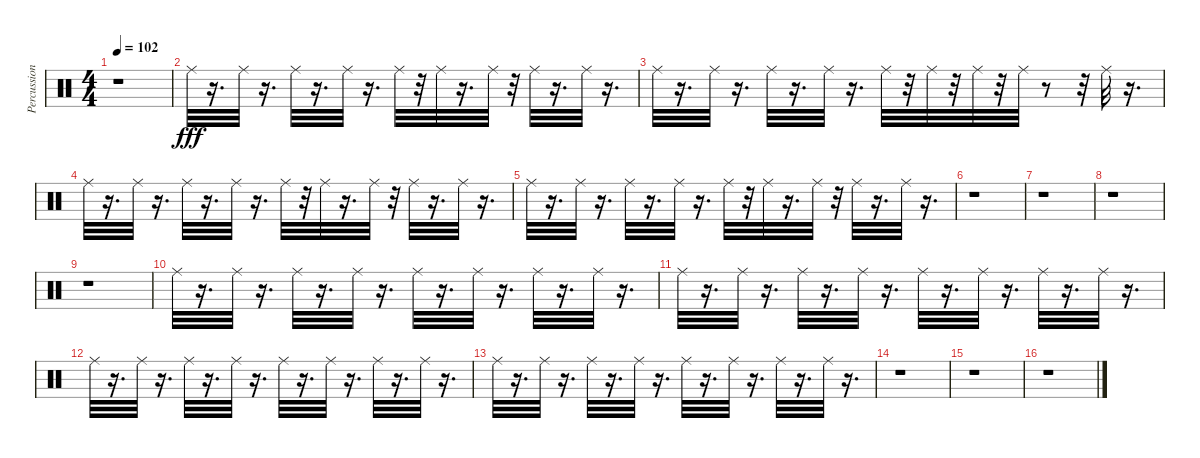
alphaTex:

\track ("Percussion" "Percussion") {instrument percussion}
\staff {score}
\articulation defaults
\ts (4 4)
\tempo 102
\clef neutral
\ks c
r.1{dy fff} |
"Ride (middle)".32 r.16{d} "Ride (middle)".32 r.16{d} "Ride (middle)".32 r.16{d} "Ride (middle)".32 r.16{d} "Ride (middle)".32 r.32 "Ride (middle)".32 r.16{d} "Ride (middle)".32 r.32 "Ride (middle)".32 r.16{d} "Ride (middle)".32 r.16{d} |
"Ride (middle)".32 r.16{d} "Ride (middle)".32 r.16{d} "Ride (middle)".32 r.16{d} "Ride (middle)".32 r.16{d} "Ride (middle)".32 r.32 "Ride (middle)".32 r.32 "Ride (middle)".32 r.32 "Ride (middle)".32 r.8 r.32 "Ride (middle)".32 r.16{d} |
"Ride (middle)".32 r.16{d} "Ride (middle)".32 r.16{d} "Ride (middle)".32 r.16{d} "Ride (middle)".32 r.16{d} "Ride (middle)".32 r.32 "Ride (middle)".32 r.16{d} "Ride (middle)".32 r.32 "Ride (middle)".32 r.16{d} "Ride (middle)".32 r.16{d} |
"Ride (middle)".32 r.16{d} "Ride (middle)".32 r.16{d} "Ride (middle)".32 r.16{d} "Ride (middle)".32 r.16{d} "Ride (middle)".32 r.32 "Ride (middle)".32 r.16{d} "Ride (middle)".32 r.32 "Ride (middle)".32 r.16{d} "Ride (middle)".32 r.16{d} |
r.1 |
r.1 |
r.1 |
r.1 |
"Ride (middle)".32 r.16{d} "Ride (middle)".32 r.16{d} "Ride (middle)".32 r.16{d} "Ride (middle)".32 r.16{d} "Ride (middle)".32 r.16{d} "Ride (middle)".32 r.16{d} "Ride (middle)".32 r.16{d} "Ride (middle)".32 r.16{d} |
"Ride (middle)".32 r.16{d} "Ride (middle)".32 r.16{d} "Ride (middle)".32 r.16{d} "Ride (middle)".32 r.16{d} "Ride (middle)".32 r.16{d} "Ride (middle)".32 r.16{d} "Ride (middle)".32 r.16{d} "Ride (middle)".32 r.16{d} |
"Ride (middle)".32 r.16{d} "Ride (middle)".32 r.16{d} "Ride (middle)".32 r.16{d} "Ride (middle)".32 r.16{d} "Ride (middle)".32 r.16{d} "Ride (middle)".32 r.16{d} "Ride (middle)".32 r.16{d} "Ride (middle)".32 r.16{d} |
"Ride (middle)".32 r.16{d} "Ride (middle)".32 r.16{d} "Ride (middle)".32 r.16{d} "Ride (middle)".32 r.16{d} "Ride (middle)".32 r.16{d} "Ride (middle)".32 r.16{d} "Ride (middle)".32 r.16{d} "Ride (middle)".32 r.16{d} |
r.1 |
r.1 |
r.1
